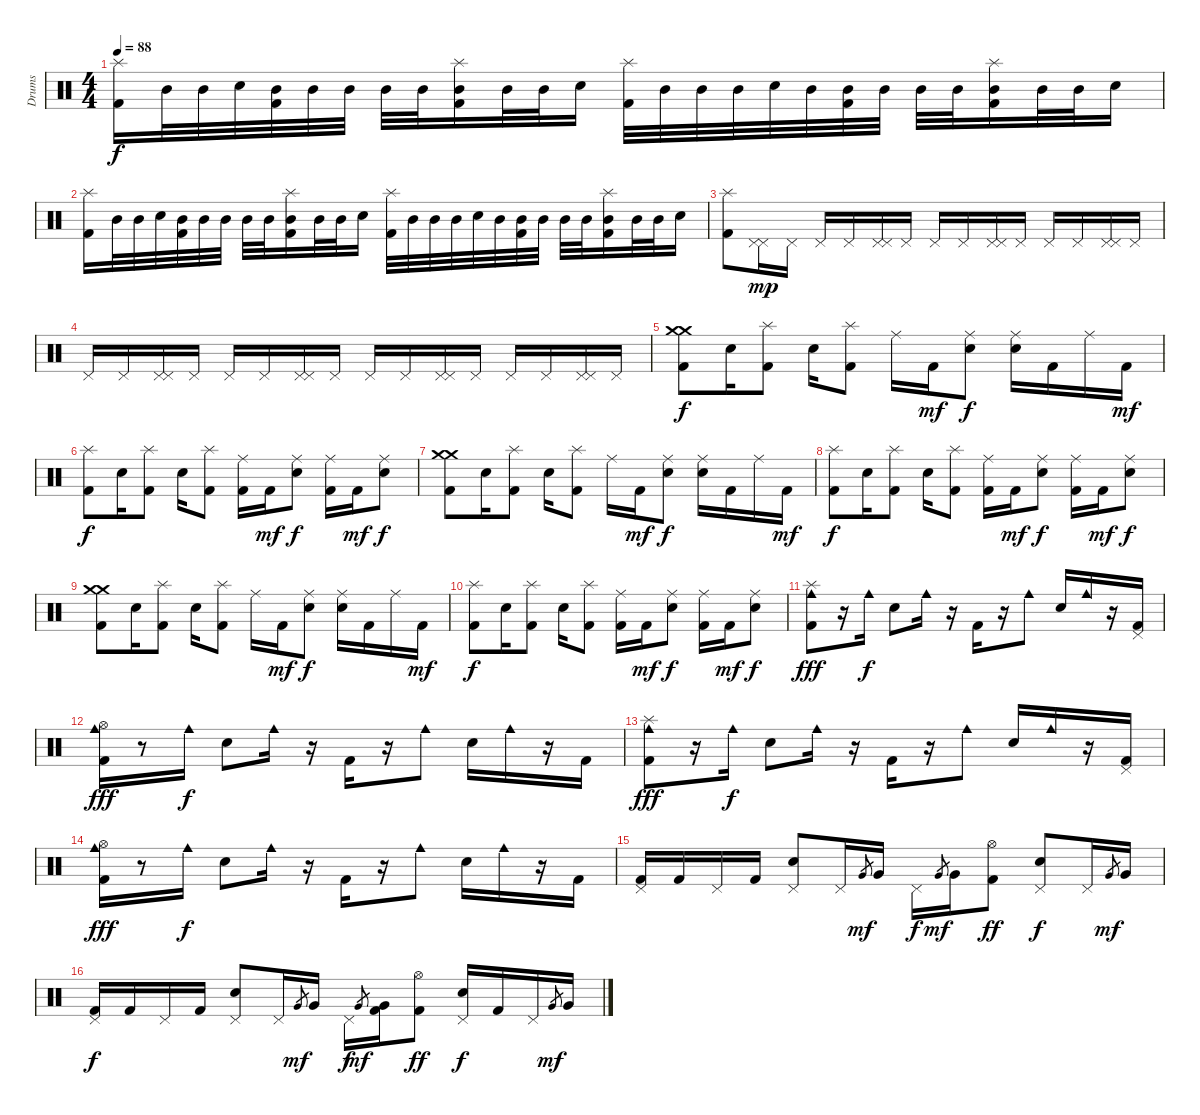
\track ("Drums" "Drums") {instrument percussion}
\staff {score}
\articulation defaults
\ts (4 4)
\tempo 88
\clef neutral
\ks c
("Splash (hit)" "Kick (hit) 2").16{dy f} "Mid Tom (hit)".32 "Mid Tom (hit)".32 "Electric Snare (hit)".32 ("Mid Tom (hit)" "Kick (hit) 2").32 "Mid Tom (hit)".32 "Mid Tom (hit)".32 "Mid Tom (hit)".32 "Mid Tom (hit)".32 ("Splash (hit)" "Mid Tom (hit)" "Kick (hit) 2").16 "Mid Tom (hit)".32 "Mid Tom (hit)".32 "Electric Snare (hit)".16 ("Splash (hit)" "Kick (hit) 2").32 "Mid Tom (hit)".32 "Mid Tom (hit)".32 "Mid Tom (hit)".32 "Electric Snare (hit)".32 "Mid Tom (hit)".32 ("Mid Tom (hit)" "Kick (hit) 2").32 "Mid Tom (hit)".32 "Mid Tom (hit)".32 "Mid Tom (hit)".32 ("Splash (hit)" "Mid Tom (hit)" "Kick (hit) 2").16 "Mid Tom (hit)".32 "Mid Tom (hit)".32 "Electric Snare (hit)".16 |
("Splash (hit)" "Kick (hit) 2").16 "Mid Tom (hit)".32 "Mid Tom (hit)".32 "Electric Snare (hit)".32 ("Mid Tom (hit)" "Kick (hit) 2").32 "Mid Tom (hit)".32 "Mid Tom (hit)".32 "Mid Tom (hit)".32 "Mid Tom (hit)".32 ("Splash (hit)" "Mid Tom (hit)" "Kick (hit) 2").16 "Mid Tom (hit)".32 "Mid Tom (hit)".32 "Electric Snare (hit)".16 ("Splash (hit)" "Kick (hit) 2").32 "Mid Tom (hit)".32 "Mid Tom (hit)".32 "Mid Tom (hit)".32 "Electric Snare (hit)".32 "Mid Tom (hit)".32 ("Mid Tom (hit)" "Kick (hit) 2").32 "Mid Tom (hit)".32 "Mid Tom (hit)".32 "Mid Tom (hit)".32 ("Splash (hit)" "Mid Tom (hit)" "Kick (hit) 2").16 "Mid Tom (hit)".32 "Mid Tom (hit)".32 "Electric Snare (hit)".16 |
("Splash (hit)" "Kick (hit) 2").8{volume 10} ("Pedal Hi-Hat (hit)" "Pedal Hi-Hat (hit)").16{dy mp} "Pedal Hi-Hat (hit)".16 "Pedal Hi-Hat (hit)".16 "Pedal Hi-Hat (hit)".16 ("Pedal Hi-Hat (hit)" "Pedal Hi-Hat (hit)").16 "Pedal Hi-Hat (hit)".16 "Pedal Hi-Hat (hit)".16 "Pedal Hi-Hat (hit)".16 ("Pedal Hi-Hat (hit)" "Pedal Hi-Hat (hit)").16 "Pedal Hi-Hat (hit)".16 "Pedal Hi-Hat (hit)".16 "Pedal Hi-Hat (hit)".16 ("Pedal Hi-Hat (hit)" "Pedal Hi-Hat (hit)").16 "Pedal Hi-Hat (hit)".16 |
"Pedal Hi-Hat (hit)".16 "Pedal Hi-Hat (hit)".16 ("Pedal Hi-Hat (hit)" "Pedal Hi-Hat (hit)").16 "Pedal Hi-Hat (hit)".16 "Pedal Hi-Hat (hit)".16 "Pedal Hi-Hat (hit)".16 ("Pedal Hi-Hat (hit)" "Pedal Hi-Hat (hit)").16 "Pedal Hi-Hat (hit)".16 "Pedal Hi-Hat (hit)".16 "Pedal Hi-Hat (hit)".16 ("Pedal Hi-Hat (hit)" "Pedal Hi-Hat (hit)").16 "Pedal Hi-Hat (hit)".16 "Pedal Hi-Hat (hit)".16 "Pedal Hi-Hat (hit)".16 ("Pedal Hi-Hat (hit)" "Pedal Hi-Hat (hit)").16 "Pedal Hi-Hat (hit)".16 |
("Crash medium (hit)" "Crash medium (hit)" "Kick (hit) 2").8{dy f volume 14} "Electric Snare (hit)".16 ("Splash (hit)" "Kick (hit) 2").8 "Electric Snare (hit)".16 ("Splash (hit)" "Kick (hit) 2").8 "Ride (middle)".16 "Kick (hit) 2".16{dy mf} ("Ride (middle)" "Electric Snare (hit)").8{dy f} ("Ride (middle)" "Electric Snare (hit)").16 "Kick (hit) 2".16 "Ride (middle)".16 "Kick (hit) 2".16{dy mf} |
("Splash (hit)" "Kick (hit) 2").8{dy f} "Electric Snare (hit)".16 ("Splash (hit)" "Kick (hit) 2").8 "Electric Snare (hit)".16 ("Splash (hit)" "Kick (hit) 2").8 ("Ride (middle)" "Kick (hit) 2").16 "Kick (hit) 2".16{dy mf} ("Ride (middle)" "Electric Snare (hit)").8{dy f} ("Ride (middle)" "Kick (hit) 2").16 "Kick (hit) 2".16{dy mf} ("Ride (middle)" "Electric Snare (hit)").8{dy f} |
("Crash medium (hit)" "Crash medium (hit)" "Kick (hit) 2").8 "Electric Snare (hit)".16 ("Splash (hit)" "Kick (hit) 2").8 "Electric Snare (hit)".16 ("Splash (hit)" "Kick (hit) 2").8 "Ride (middle)".16 "Kick (hit) 2".16{dy mf} ("Ride (middle)" "Electric Snare (hit)").8{dy f} ("Ride (middle)" "Electric Snare (hit)").16 "Kick (hit) 2".16 "Ride (middle)".16 "Kick (hit) 2".16{dy mf} |
("Splash (hit)" "Kick (hit) 2").8{dy f} "Electric Snare (hit)".16 ("Splash (hit)" "Kick (hit) 2").8 "Electric Snare (hit)".16 ("Splash (hit)" "Kick (hit) 2").8 ("Ride (middle)" "Kick (hit) 2").16 "Kick (hit) 2".16{dy mf} ("Ride (middle)" "Electric Snare (hit)").8{dy f} ("Ride (middle)" "Kick (hit) 2").16 "Kick (hit) 2".16{dy mf} ("Ride (middle)" "Electric Snare (hit)").8{dy f} |
("Crash medium (hit)" "Crash medium (hit)" "Kick (hit) 2").8 "Electric Snare (hit)".16 ("Splash (hit)" "Kick (hit) 2").8 "Electric Snare (hit)".16 ("Splash (hit)" "Kick (hit) 2").8 "Ride (middle)".16 "Kick (hit) 2".16{dy mf} ("Ride (middle)" "Electric Snare (hit)").8{dy f} ("Ride (middle)" "Electric Snare (hit)").16 "Kick (hit) 2".16 "Ride (middle)".16 "Kick (hit) 2".16{dy mf} |
("Splash (hit)" "Kick (hit) 2").8{dy f} "Electric Snare (hit)".16 ("Splash (hit)" "Kick (hit) 2").8 "Electric Snare (hit)".16 ("Splash (hit)" "Kick (hit) 2").8 ("Ride (middle)" "Kick (hit) 2").16 "Kick (hit) 2".16{dy mf} ("Ride (middle)" "Electric Snare (hit)").8{dy f} ("Ride (middle)" "Kick (hit) 2").16 "Kick (hit) 2".16{dy mf} ("Ride (middle)" "Electric Snare (hit)").8{dy f} |
("Splash (hit)" "Cowbell medium (hit)" "Kick (hit) 2").8{dy fff} r.16 "Cowbell medium (hit)".16{dy f} "Electric Snare (hit)".8 "Cowbell medium (hit)".16 r.16 "Kick (hit) 2".16 r.16 "Cowbell medium (hit)".8 "Electric Snare (hit)".16 "Cowbell medium (hit)".16 r.16 ("Pedal Hi-Hat (hit)" "Kick (hit) 2").16 |
("Hi-Hat (open)" "Cowbell medium (hit)" "Kick (hit) 2").16{dy fff} r.8 "Cowbell medium (hit)".16{dy f} "Electric Snare (hit)".8 "Cowbell medium (hit)".16 r.16 "Kick (hit) 2".16 r.16 "Cowbell medium (hit)".8 "Electric Snare (hit)".16 "Cowbell medium (hit)".16 r.16 "Kick (hit) 2".16 |
("Splash (hit)" "Cowbell medium (hit)" "Kick (hit) 2").8{dy fff} r.16 "Cowbell medium (hit)".16{dy f} "Electric Snare (hit)".8 "Cowbell medium (hit)".16 r.16 "Kick (hit) 2".16 r.16 "Cowbell medium (hit)".8 "Electric Snare (hit)".16 "Cowbell medium (hit)".16 r.16 ("Pedal Hi-Hat (hit)" "Kick (hit) 2").16 |
("Hi-Hat (open)" "Cowbell medium (hit)" "Kick (hit) 2").16{dy fff} r.8 "Cowbell medium (hit)".16{dy f} "Electric Snare (hit)".8 "Cowbell medium (hit)".16 r.16 "Kick (hit) 2".16 r.16 "Cowbell medium (hit)".8 "Electric Snare (hit)".16 "Cowbell medium (hit)".16 r.16 "Kick (hit) 2".16 |
("Pedal Hi-Hat (hit)" "Kick (hit) 2").16 "Kick (hit) 2".16 "Pedal Hi-Hat (hit)".16 "Kick (hit) 2".16 ("Pedal Hi-Hat (hit)" "Electric Snare (hit)").8 "Pedal Hi-Hat (hit)".16 "Very Low Tom (hit)"{sl}.8{gr dy mf} "Very Low Tom (hit)".16 "Pedal Hi-Hat (hit)".16{dy f} "Very Low Tom (hit)"{sl}.8{gr dy mf} "Very Low Tom (hit)".16 ("Hi-Hat (open)" "Kick (hit) 2").8{dy ff} ("Pedal Hi-Hat (hit)" "Electric Snare (hit)").8{dy f} "Pedal Hi-Hat (hit)".16 "Very Low Tom (hit)"{sl}.8{gr dy mf} "Very Low Tom (hit)".16 |
("Pedal Hi-Hat (hit)" "Kick (hit) 2").16{dy f} "Kick (hit) 2".16 "Pedal Hi-Hat (hit)".16 "Kick (hit) 2".16 ("Pedal Hi-Hat (hit)" "Electric Snare (hit)").8 "Pedal Hi-Hat (hit)".16 "Very Low Tom (hit)"{sl}.8{gr dy mf} "Very Low Tom (hit)".16 "Pedal Hi-Hat (hit)".16{dy f} "Very Low Tom (hit)"{sl}.8{gr dy mf} ("Very Low Tom (hit)" "Kick (hit) 2").16 ("Hi-Hat (open)" "Kick (hit) 2").8{dy ff} ("Pedal Hi-Hat (hit)" "Electric Snare (hit)").16{dy f} "Kick (hit) 2".16 "Pedal Hi-Hat (hit)".16 "Very Low Tom (hit)"{sl}.8{gr dy mf} "Very Low Tom (hit)".16
